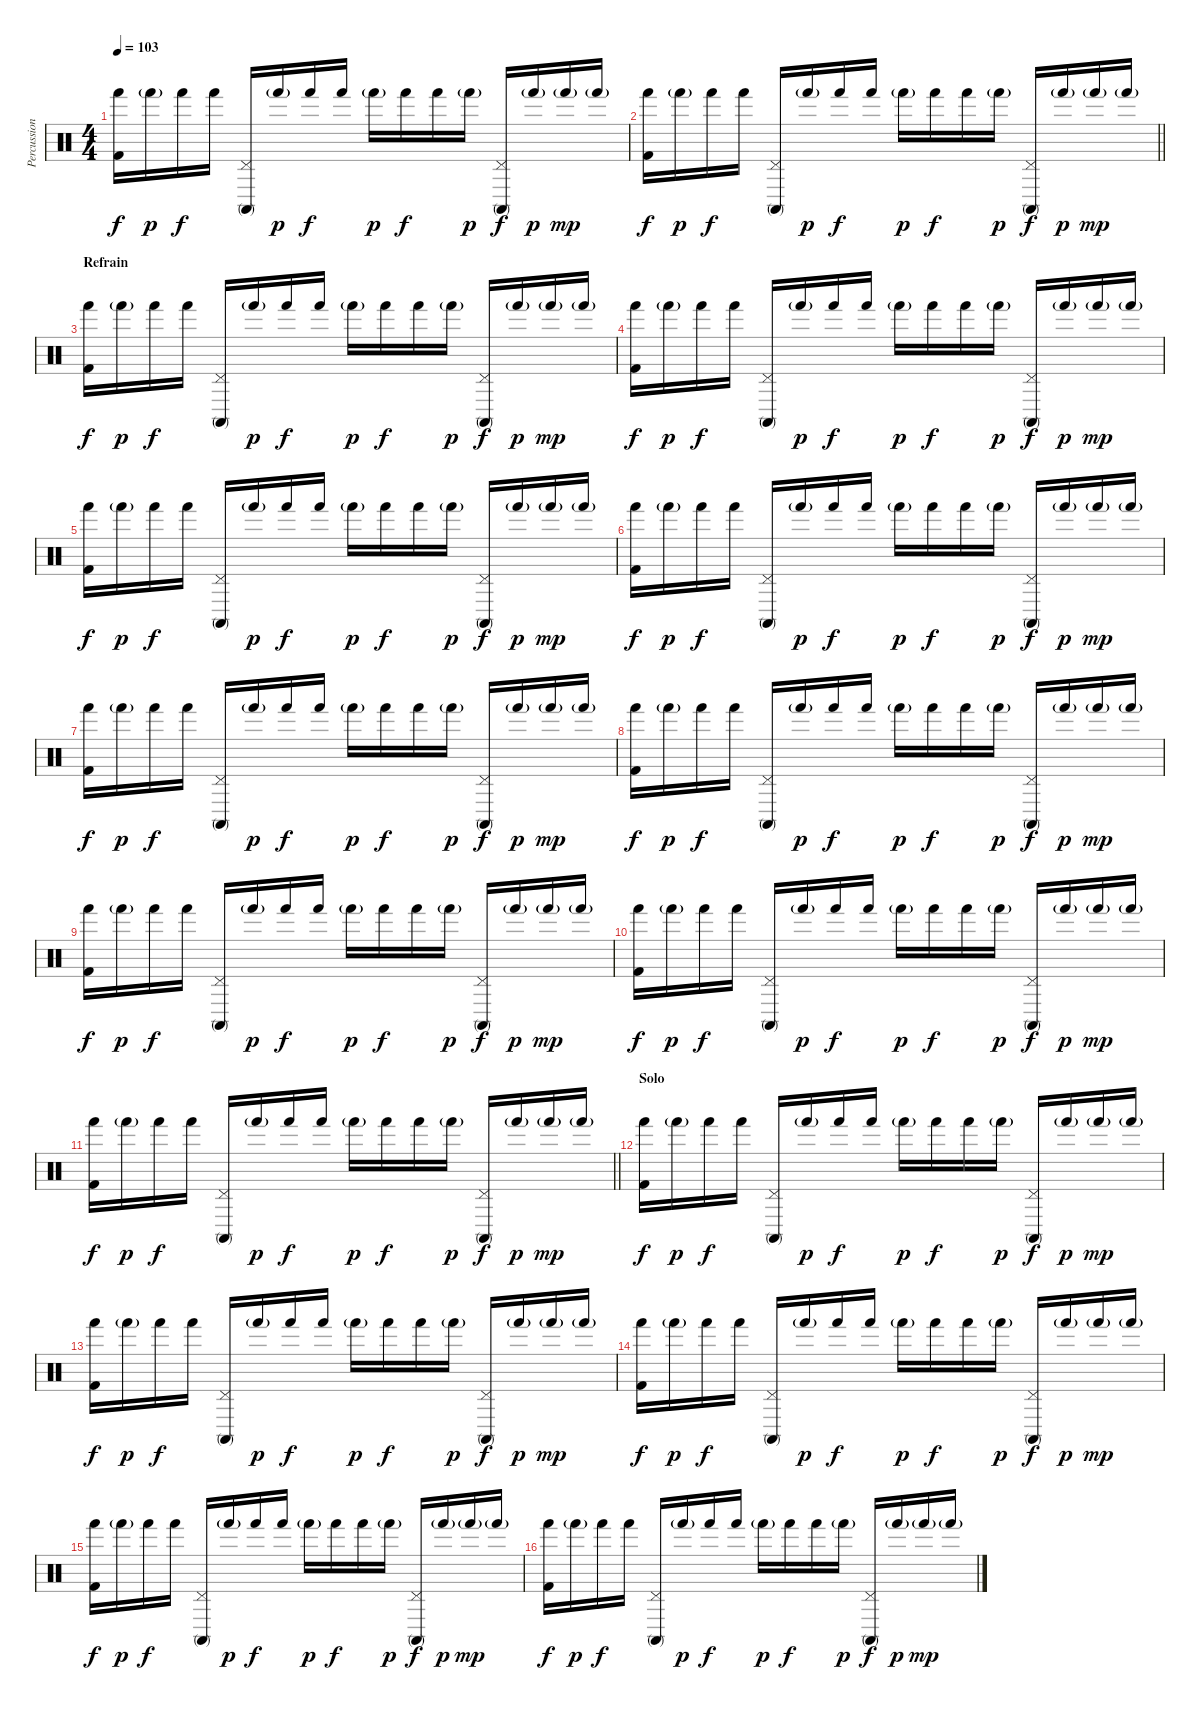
\track ("Percussions" "Percussion") {instrument percussion}
\staff {score}
\articulation defaults
\ts (4 4)
\tempo 103
\clef neutral
\ks c
("Hand (hit)" "Kick (hit) 2").16{dy f} "Hand (hit)"{g}.16{dy p} "Hand (hit)".16{dy f} "Hand (hit)".16 ("Pedal Hi-Hat (hit)" "Conga high (mute)").16 "Hand (hit)"{g}.16{dy p} "Hand (hit)".16{dy f} "Hand (hit)".16 "Hand (hit)"{g}.16{dy p} "Hand (hit)".16{dy f} "Hand (hit)".16 "Hand (hit)"{g}.16{dy p} ("Pedal Hi-Hat (hit)" "Conga high (mute)").16{dy f} "Hand (hit)"{g}.16{dy p} "Hand (hit)"{g}.16{dy mp} "Hand (hit)"{g}.16 |
\barLineRight lightlight
("Hand (hit)" "Kick (hit) 2").16{dy f} "Hand (hit)"{g}.16{dy p} "Hand (hit)".16{dy f} "Hand (hit)".16 ("Pedal Hi-Hat (hit)" "Conga high (mute)").16 "Hand (hit)"{g}.16{dy p} "Hand (hit)".16{dy f} "Hand (hit)".16 "Hand (hit)"{g}.16{dy p} "Hand (hit)".16{dy f} "Hand (hit)".16 "Hand (hit)"{g}.16{dy p} ("Pedal Hi-Hat (hit)" "Conga high (mute)").16{dy f} "Hand (hit)"{g}.16{dy p} "Hand (hit)"{g}.16{dy mp} "Hand (hit)"{g}.16 |
\section ("" "Refrain")
("Hand (hit)" "Kick (hit) 2").16{dy f} "Hand (hit)"{g}.16{dy p} "Hand (hit)".16{dy f} "Hand (hit)".16 ("Pedal Hi-Hat (hit)" "Conga high (mute)").16 "Hand (hit)"{g}.16{dy p} "Hand (hit)".16{dy f} "Hand (hit)".16 "Hand (hit)"{g}.16{dy p} "Hand (hit)".16{dy f} "Hand (hit)".16 "Hand (hit)"{g}.16{dy p} ("Pedal Hi-Hat (hit)" "Conga high (mute)").16{dy f} "Hand (hit)"{g}.16{dy p} "Hand (hit)"{g}.16{dy mp} "Hand (hit)"{g}.16 |
("Hand (hit)" "Kick (hit) 2").16{dy f} "Hand (hit)"{g}.16{dy p} "Hand (hit)".16{dy f} "Hand (hit)".16 ("Pedal Hi-Hat (hit)" "Conga high (mute)").16 "Hand (hit)"{g}.16{dy p} "Hand (hit)".16{dy f} "Hand (hit)".16 "Hand (hit)"{g}.16{dy p} "Hand (hit)".16{dy f} "Hand (hit)".16 "Hand (hit)"{g}.16{dy p} ("Pedal Hi-Hat (hit)" "Conga high (mute)").16{dy f} "Hand (hit)"{g}.16{dy p} "Hand (hit)"{g}.16{dy mp} "Hand (hit)"{g}.16 |
("Hand (hit)" "Kick (hit) 2").16{dy f} "Hand (hit)"{g}.16{dy p} "Hand (hit)".16{dy f} "Hand (hit)".16 ("Pedal Hi-Hat (hit)" "Conga high (mute)").16 "Hand (hit)"{g}.16{dy p} "Hand (hit)".16{dy f} "Hand (hit)".16 "Hand (hit)"{g}.16{dy p} "Hand (hit)".16{dy f} "Hand (hit)".16 "Hand (hit)"{g}.16{dy p} ("Pedal Hi-Hat (hit)" "Conga high (mute)").16{dy f} "Hand (hit)"{g}.16{dy p} "Hand (hit)"{g}.16{dy mp} "Hand (hit)"{g}.16 |
("Hand (hit)" "Kick (hit) 2").16{dy f} "Hand (hit)"{g}.16{dy p} "Hand (hit)".16{dy f} "Hand (hit)".16 ("Pedal Hi-Hat (hit)" "Conga high (mute)").16 "Hand (hit)"{g}.16{dy p} "Hand (hit)".16{dy f} "Hand (hit)".16 "Hand (hit)"{g}.16{dy p} "Hand (hit)".16{dy f} "Hand (hit)".16 "Hand (hit)"{g}.16{dy p} ("Pedal Hi-Hat (hit)" "Conga high (mute)").16{dy f} "Hand (hit)"{g}.16{dy p} "Hand (hit)"{g}.16{dy mp} "Hand (hit)"{g}.16 |
("Hand (hit)" "Kick (hit) 2").16{dy f} "Hand (hit)"{g}.16{dy p} "Hand (hit)".16{dy f} "Hand (hit)".16 ("Pedal Hi-Hat (hit)" "Conga high (mute)").16 "Hand (hit)"{g}.16{dy p} "Hand (hit)".16{dy f} "Hand (hit)".16 "Hand (hit)"{g}.16{dy p} "Hand (hit)".16{dy f} "Hand (hit)".16 "Hand (hit)"{g}.16{dy p} ("Pedal Hi-Hat (hit)" "Conga high (mute)").16{dy f} "Hand (hit)"{g}.16{dy p} "Hand (hit)"{g}.16{dy mp} "Hand (hit)"{g}.16 |
("Hand (hit)" "Kick (hit) 2").16{dy f} "Hand (hit)"{g}.16{dy p} "Hand (hit)".16{dy f} "Hand (hit)".16 ("Pedal Hi-Hat (hit)" "Conga high (mute)").16 "Hand (hit)"{g}.16{dy p} "Hand (hit)".16{dy f} "Hand (hit)".16 "Hand (hit)"{g}.16{dy p} "Hand (hit)".16{dy f} "Hand (hit)".16 "Hand (hit)"{g}.16{dy p} ("Pedal Hi-Hat (hit)" "Conga high (mute)").16{dy f} "Hand (hit)"{g}.16{dy p} "Hand (hit)"{g}.16{dy mp} "Hand (hit)"{g}.16 |
("Hand (hit)" "Kick (hit) 2").16{dy f} "Hand (hit)"{g}.16{dy p} "Hand (hit)".16{dy f} "Hand (hit)".16 ("Pedal Hi-Hat (hit)" "Conga high (mute)").16 "Hand (hit)"{g}.16{dy p} "Hand (hit)".16{dy f} "Hand (hit)".16 "Hand (hit)"{g}.16{dy p} "Hand (hit)".16{dy f} "Hand (hit)".16 "Hand (hit)"{g}.16{dy p} ("Pedal Hi-Hat (hit)" "Conga high (mute)").16{dy f} "Hand (hit)"{g}.16{dy p} "Hand (hit)"{g}.16{dy mp} "Hand (hit)"{g}.16 |
("Hand (hit)" "Kick (hit) 2").16{dy f} "Hand (hit)"{g}.16{dy p} "Hand (hit)".16{dy f} "Hand (hit)".16 ("Pedal Hi-Hat (hit)" "Conga high (mute)").16 "Hand (hit)"{g}.16{dy p} "Hand (hit)".16{dy f} "Hand (hit)".16 "Hand (hit)"{g}.16{dy p} "Hand (hit)".16{dy f} "Hand (hit)".16 "Hand (hit)"{g}.16{dy p} ("Pedal Hi-Hat (hit)" "Conga high (mute)").16{dy f} "Hand (hit)"{g}.16{dy p} "Hand (hit)"{g}.16{dy mp} "Hand (hit)"{g}.16 |
\barLineRight lightlight
("Hand (hit)" "Kick (hit) 2").16{dy f} "Hand (hit)"{g}.16{dy p} "Hand (hit)".16{dy f} "Hand (hit)".16 ("Pedal Hi-Hat (hit)" "Conga high (mute)").16 "Hand (hit)"{g}.16{dy p} "Hand (hit)".16{dy f} "Hand (hit)".16 "Hand (hit)"{g}.16{dy p} "Hand (hit)".16{dy f} "Hand (hit)".16 "Hand (hit)"{g}.16{dy p} ("Pedal Hi-Hat (hit)" "Conga high (mute)").16{dy f} "Hand (hit)"{g}.16{dy p} "Hand (hit)"{g}.16{dy mp} "Hand (hit)"{g}.16 |
\section ("" "Solo")
("Hand (hit)" "Kick (hit) 2").16{dy f} "Hand (hit)"{g}.16{dy p} "Hand (hit)".16{dy f} "Hand (hit)".16 ("Pedal Hi-Hat (hit)" "Conga high (mute)").16 "Hand (hit)"{g}.16{dy p} "Hand (hit)".16{dy f} "Hand (hit)".16 "Hand (hit)"{g}.16{dy p} "Hand (hit)".16{dy f} "Hand (hit)".16 "Hand (hit)"{g}.16{dy p} ("Pedal Hi-Hat (hit)" "Conga high (mute)").16{dy f} "Hand (hit)"{g}.16{dy p} "Hand (hit)"{g}.16{dy mp} "Hand (hit)"{g}.16 |
("Hand (hit)" "Kick (hit) 2").16{dy f} "Hand (hit)"{g}.16{dy p} "Hand (hit)".16{dy f} "Hand (hit)".16 ("Pedal Hi-Hat (hit)" "Conga high (mute)").16 "Hand (hit)"{g}.16{dy p} "Hand (hit)".16{dy f} "Hand (hit)".16 "Hand (hit)"{g}.16{dy p} "Hand (hit)".16{dy f} "Hand (hit)".16 "Hand (hit)"{g}.16{dy p} ("Pedal Hi-Hat (hit)" "Conga high (mute)").16{dy f} "Hand (hit)"{g}.16{dy p} "Hand (hit)"{g}.16{dy mp} "Hand (hit)"{g}.16 |
("Hand (hit)" "Kick (hit) 2").16{dy f} "Hand (hit)"{g}.16{dy p} "Hand (hit)".16{dy f} "Hand (hit)".16 ("Pedal Hi-Hat (hit)" "Conga high (mute)").16 "Hand (hit)"{g}.16{dy p} "Hand (hit)".16{dy f} "Hand (hit)".16 "Hand (hit)"{g}.16{dy p} "Hand (hit)".16{dy f} "Hand (hit)".16 "Hand (hit)"{g}.16{dy p} ("Pedal Hi-Hat (hit)" "Conga high (mute)").16{dy f} "Hand (hit)"{g}.16{dy p} "Hand (hit)"{g}.16{dy mp} "Hand (hit)"{g}.16 |
("Hand (hit)" "Kick (hit) 2").16{dy f} "Hand (hit)"{g}.16{dy p} "Hand (hit)".16{dy f} "Hand (hit)".16 ("Pedal Hi-Hat (hit)" "Conga high (mute)").16 "Hand (hit)"{g}.16{dy p} "Hand (hit)".16{dy f} "Hand (hit)".16 "Hand (hit)"{g}.16{dy p} "Hand (hit)".16{dy f} "Hand (hit)".16 "Hand (hit)"{g}.16{dy p} ("Pedal Hi-Hat (hit)" "Conga high (mute)").16{dy f} "Hand (hit)"{g}.16{dy p} "Hand (hit)"{g}.16{dy mp} "Hand (hit)"{g}.16 |
("Hand (hit)" "Kick (hit) 2").16{dy f} "Hand (hit)"{g}.16{dy p} "Hand (hit)".16{dy f} "Hand (hit)".16 ("Pedal Hi-Hat (hit)" "Conga high (mute)").16 "Hand (hit)"{g}.16{dy p} "Hand (hit)".16{dy f} "Hand (hit)".16 "Hand (hit)"{g}.16{dy p} "Hand (hit)".16{dy f} "Hand (hit)".16 "Hand (hit)"{g}.16{dy p} ("Pedal Hi-Hat (hit)" "Conga high (mute)").16{dy f} "Hand (hit)"{g}.16{dy p} "Hand (hit)"{g}.16{dy mp} "Hand (hit)"{g}.16
